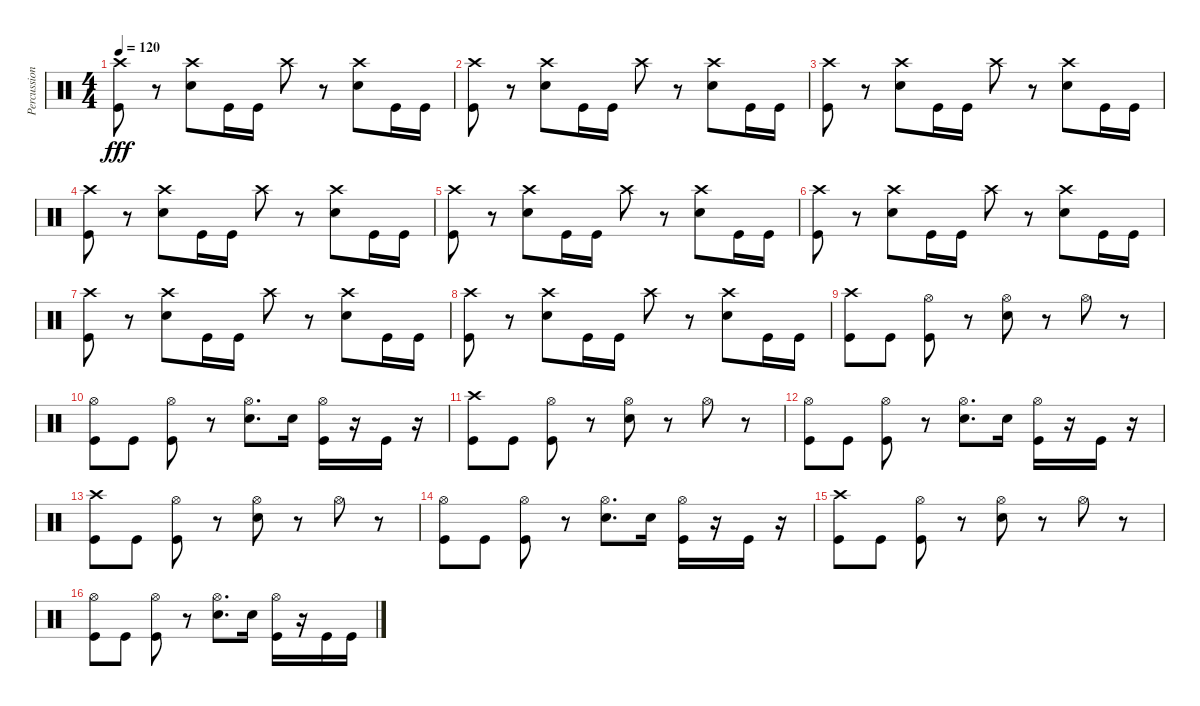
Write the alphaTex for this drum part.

\track ("Percussion" "Percussion") {instrument percussion}
\staff {score}
\articulation defaults
\ts (4 4)
\tempo 120
\clef neutral
\ks c
("Crash high (hit)" "Kick (hit)").8{dy fff} r.8 ("Crash high (hit)" "Snare (hit) 2").8 "Kick (hit)".16 "Kick (hit)".16 "Crash high (hit)".8 r.8 ("Crash high (hit)" "Snare (hit) 2").8 "Kick (hit)".16 "Kick (hit)".16 |
("Crash high (hit)" "Kick (hit)").8 r.8 ("Crash high (hit)" "Snare (hit) 2").8 "Kick (hit)".16 "Kick (hit)".16 "Crash high (hit)".8 r.8 ("Crash high (hit)" "Snare (hit) 2").8 "Kick (hit)".16 "Kick (hit)".16 |
("Crash high (hit)" "Kick (hit)").8 r.8 ("Crash high (hit)" "Snare (hit) 2").8 "Kick (hit)".16 "Kick (hit)".16 "Crash high (hit)".8 r.8 ("Crash high (hit)" "Snare (hit) 2").8 "Kick (hit)".16 "Kick (hit)".16 |
("Crash high (hit)" "Kick (hit)").8 r.8 ("Crash high (hit)" "Snare (hit) 2").8 "Kick (hit)".16 "Kick (hit)".16 "Crash high (hit)".8 r.8 ("Crash high (hit)" "Snare (hit) 2").8 "Kick (hit)".16 "Kick (hit)".16 |
("Crash high (hit)" "Kick (hit)").8 r.8 ("Crash high (hit)" "Snare (hit) 2").8 "Kick (hit)".16 "Kick (hit)".16 "Crash high (hit)".8 r.8 ("Crash high (hit)" "Snare (hit) 2").8 "Kick (hit)".16 "Kick (hit)".16 |
("Crash high (hit)" "Kick (hit)").8 r.8 ("Crash high (hit)" "Snare (hit) 2").8 "Kick (hit)".16 "Kick (hit)".16 "Crash high (hit)".8 r.8 ("Crash high (hit)" "Snare (hit) 2").8 "Kick (hit)".16 "Kick (hit)".16 |
("Crash high (hit)" "Kick (hit)").8 r.8 ("Crash high (hit)" "Snare (hit) 2").8 "Kick (hit)".16 "Kick (hit)".16 "Crash high (hit)".8 r.8 ("Crash high (hit)" "Snare (hit) 2").8 "Kick (hit)".16 "Kick (hit)".16 |
("Crash high (hit)" "Kick (hit)").8 r.8 ("Crash high (hit)" "Snare (hit) 2").8 "Kick (hit)".16 "Kick (hit)".16 "Crash high (hit)".8 r.8 ("Crash high (hit)" "Snare (hit) 2").8 "Kick (hit)".16 "Kick (hit)".16 |
("Crash high (hit)" "Kick (hit)").8 "Kick (hit)".8 ("Hi-Hat (open)" "Kick (hit)").8 r.8 ("Hi-Hat (open)" "Snare (hit) 2").8 r.8 "Hi-Hat (open)".8 r.8 |
("Hi-Hat (open)" "Kick (hit)").8 "Kick (hit)".8 ("Hi-Hat (open)" "Kick (hit)").8 r.8 ("Hi-Hat (open)" "Snare (hit) 2").8{d} "Snare (hit) 2".16 ("Hi-Hat (open)" "Kick (hit)").16 r.16 "Kick (hit)".16 r.16 |
("Crash high (hit)" "Kick (hit)").8 "Kick (hit)".8 ("Hi-Hat (open)" "Kick (hit)").8 r.8 ("Hi-Hat (open)" "Snare (hit) 2").8 r.8 "Hi-Hat (open)".8 r.8 |
("Hi-Hat (open)" "Kick (hit)").8 "Kick (hit)".8 ("Hi-Hat (open)" "Kick (hit)").8 r.8 ("Hi-Hat (open)" "Snare (hit) 2").8{d} "Snare (hit) 2".16 ("Hi-Hat (open)" "Kick (hit)").16 r.16 "Kick (hit)".16 r.16 |
("Crash high (hit)" "Kick (hit)").8 "Kick (hit)".8 ("Hi-Hat (open)" "Kick (hit)").8 r.8 ("Hi-Hat (open)" "Snare (hit) 2").8 r.8 "Hi-Hat (open)".8 r.8 |
("Hi-Hat (open)" "Kick (hit)").8 "Kick (hit)".8 ("Hi-Hat (open)" "Kick (hit)").8 r.8 ("Hi-Hat (open)" "Snare (hit) 2").8{d} "Snare (hit) 2".16 ("Hi-Hat (open)" "Kick (hit)").16 r.16 "Kick (hit)".16 r.16 |
("Crash high (hit)" "Kick (hit)").8 "Kick (hit)".8 ("Hi-Hat (open)" "Kick (hit)").8 r.8 ("Hi-Hat (open)" "Snare (hit) 2").8 r.8 "Hi-Hat (open)".8 r.8 |
("Hi-Hat (open)" "Kick (hit)").8 "Kick (hit)".8 ("Hi-Hat (open)" "Kick (hit)").8 r.8 ("Hi-Hat (open)" "Snare (hit) 2").8{d} "Snare (hit) 2".16 ("Hi-Hat (open)" "Kick (hit)").16 r.16 "Kick (hit)".16 "Kick (hit)".16
